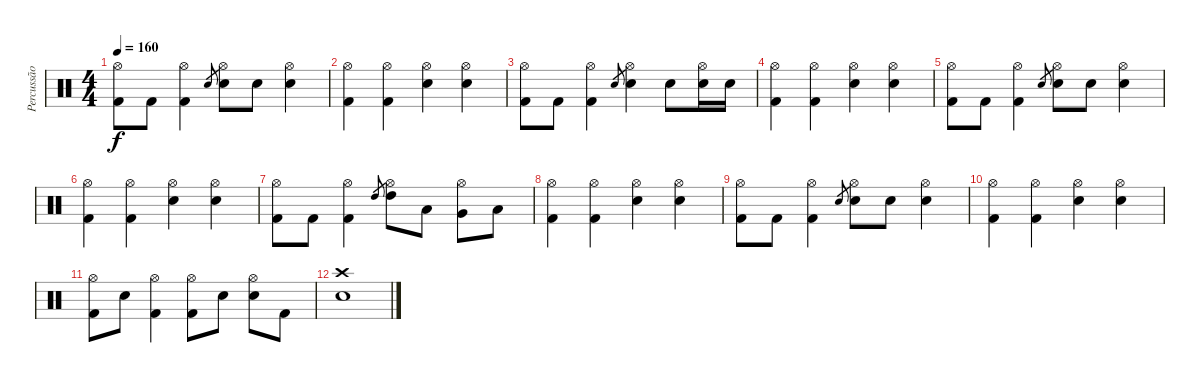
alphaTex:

\track ("Percussão" "Percussão") {instrument percussion}
\staff {score}
\articulation defaults
\ts (4 4)
\tempo 160
\clef neutral
\ks c
("Hi-Hat (open)" "Kick (hit) 2").8{dy f} "Kick (hit) 2".8 ("Hi-Hat (open)" "Kick (hit) 2").4 "Electric Snare (hit)".8{gr} ("Hi-Hat (open)" "Electric Snare (hit)").8 "Electric Snare (hit)".8 ("Hi-Hat (open)" "Electric Snare (hit)").4 |
("Hi-Hat (open)" "Kick (hit) 2").4 ("Hi-Hat (open)" "Kick (hit) 2").4 ("Hi-Hat (open)" "Electric Snare (hit)").4 ("Hi-Hat (open)" "Electric Snare (hit)").4 |
("Hi-Hat (open)" "Kick (hit) 2").8 "Kick (hit) 2".8 ("Hi-Hat (open)" "Kick (hit) 2").4 "Electric Snare (hit)".8{gr} ("Hi-Hat (open)" "Electric Snare (hit)").4 "Electric Snare (hit)".8 ("Hi-Hat (open)" "Electric Snare (hit)").16 "Electric Snare (hit)".16 |
("Hi-Hat (open)" "Kick (hit) 2").4 ("Hi-Hat (open)" "Kick (hit) 2").4 ("Hi-Hat (open)" "Electric Snare (hit)").4 ("Hi-Hat (open)" "Electric Snare (hit)").4 |
("Hi-Hat (open)" "Kick (hit) 2").8 "Kick (hit) 2".8 ("Hi-Hat (open)" "Kick (hit) 2").4 "Electric Snare (hit)".8{gr} ("Hi-Hat (open)" "Electric Snare (hit)").8 "Electric Snare (hit)".8 ("Hi-Hat (open)" "Electric Snare (hit)").4 |
("Hi-Hat (open)" "Kick (hit) 2").4 ("Hi-Hat (open)" "Kick (hit) 2").4 ("Hi-Hat (open)" "Electric Snare (hit)").4 ("Hi-Hat (open)" "Electric Snare (hit)").4 |
("Hi-Hat (open)" "Kick (hit) 2").8 "Kick (hit) 2".8 ("Hi-Hat (open)" "Kick (hit) 2").4 "High Tom (hit)".8{gr} ("Hi-Hat (open)" "High Tom (hit)").8 "Low Tom (hit)".8 ("Hi-Hat (open)" "Very Low Tom (hit)").8 "Low Floor Tom (hit)".8 |
("Hi-Hat (open)" "Kick (hit) 2").4 ("Hi-Hat (open)" "Kick (hit) 2").4 ("Hi-Hat (open)" "Electric Snare (hit)").4 ("Hi-Hat (open)" "Electric Snare (hit)").4 |
("Hi-Hat (open)" "Kick (hit) 2").8 "Kick (hit) 2".8 ("Hi-Hat (open)" "Kick (hit) 2").4 "Electric Snare (hit)".8{gr} ("Hi-Hat (open)" "Electric Snare (hit)").8 "Electric Snare (hit)".8 ("Hi-Hat (open)" "Electric Snare (hit)").4 |
("Hi-Hat (open)" "Kick (hit) 2").4 ("Hi-Hat (open)" "Kick (hit) 2").4 ("Hi-Hat (open)" "Electric Snare (hit)").4 ("Hi-Hat (open)" "Electric Snare (hit)").4 |
("Hi-Hat (open)" "Kick (hit) 2").8 "Electric Snare (hit)".8 ("Hi-Hat (open)" "Kick (hit) 2").4 ("Hi-Hat (open)" "Kick (hit) 2").8 "Electric Snare (hit)".8 ("Hi-Hat (open)" "Electric Snare (hit)").8 "Kick (hit) 2".8 |
("Crash high (hit)" "Electric Snare (hit)").1
